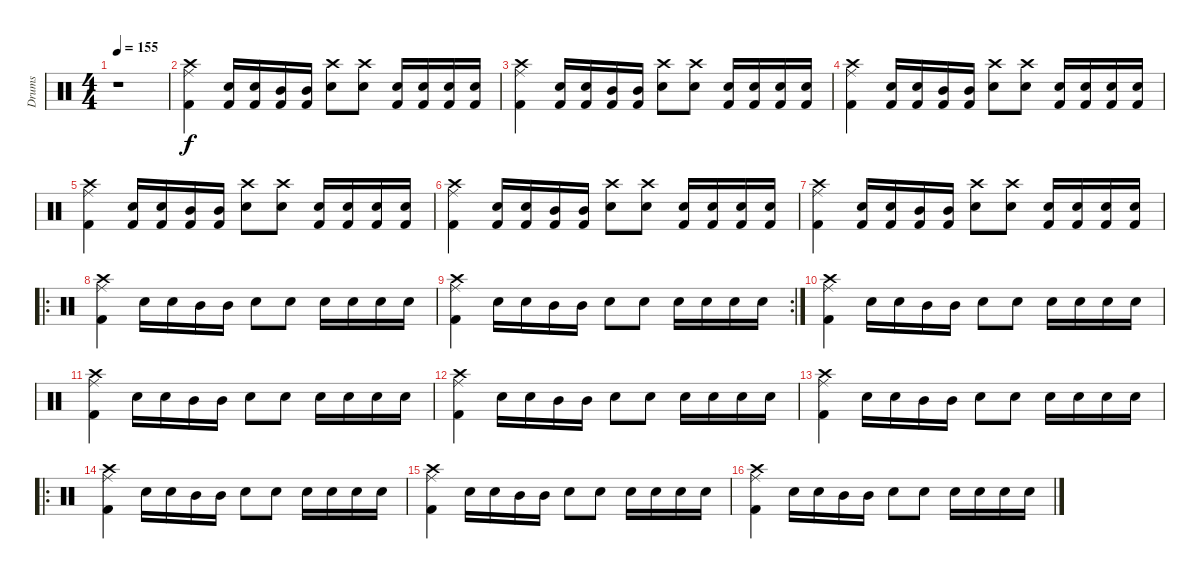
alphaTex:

\track ("Drums" "Drums") {instrument percussion}
\staff {score}
\articulation defaults
\ts (4 4)
\tempo 155
\clef neutral
\ks c
r.1{dy f} |
("Crash high (hit)" "Kick (hit) 2" "Ride (middle)").4 ("Kick (hit) 2" "Snare (hit) 2").16 ("Kick (hit) 2" "Snare (hit) 2").16 ("Kick (hit) 2" "Mid Tom (hit)").16 ("Kick (hit) 2" "Mid Tom (hit)").16 ("Crash high (hit)" "Electric Snare (hit)").8 ("Crash high (hit)" "Electric Snare (hit)").8 ("Kick (hit) 2" "Snare (hit) 2").16 ("Kick (hit) 2" "Snare (hit) 2").16 ("Kick (hit) 2" "Snare (hit) 2").16 ("Kick (hit) 2" "Snare (hit) 2").16 |
("Crash high (hit)" "Kick (hit) 2" "Ride (middle)").4 ("Kick (hit) 2" "Snare (hit) 2").16 ("Kick (hit) 2" "Snare (hit) 2").16 ("Kick (hit) 2" "Mid Tom (hit)").16 ("Kick (hit) 2" "Mid Tom (hit)").16 ("Crash high (hit)" "Electric Snare (hit)").8 ("Crash high (hit)" "Electric Snare (hit)").8 ("Kick (hit) 2" "Snare (hit) 2").16 ("Kick (hit) 2" "Snare (hit) 2").16 ("Kick (hit) 2" "Snare (hit) 2").16 ("Kick (hit) 2" "Snare (hit) 2").16 |
("Crash high (hit)" "Kick (hit) 2" "Ride (middle)").4 ("Kick (hit) 2" "Snare (hit) 2").16 ("Kick (hit) 2" "Snare (hit) 2").16 ("Kick (hit) 2" "Mid Tom (hit)").16 ("Kick (hit) 2" "Mid Tom (hit)").16 ("Crash high (hit)" "Electric Snare (hit)").8 ("Crash high (hit)" "Electric Snare (hit)").8 ("Kick (hit) 2" "Snare (hit) 2").16 ("Kick (hit) 2" "Snare (hit) 2").16 ("Kick (hit) 2" "Snare (hit) 2").16 ("Kick (hit) 2" "Snare (hit) 2").16 |
("Crash high (hit)" "Kick (hit) 2" "Ride (middle)").4 ("Kick (hit) 2" "Snare (hit) 2").16 ("Kick (hit) 2" "Snare (hit) 2").16 ("Kick (hit) 2" "Mid Tom (hit)").16 ("Kick (hit) 2" "Mid Tom (hit)").16 ("Crash high (hit)" "Electric Snare (hit)").8 ("Crash high (hit)" "Electric Snare (hit)").8 ("Kick (hit) 2" "Snare (hit) 2").16 ("Kick (hit) 2" "Snare (hit) 2").16 ("Kick (hit) 2" "Snare (hit) 2").16 ("Kick (hit) 2" "Snare (hit) 2").16 |
("Crash high (hit)" "Kick (hit) 2" "Ride (middle)").4 ("Kick (hit) 2" "Snare (hit) 2").16 ("Kick (hit) 2" "Snare (hit) 2").16 ("Kick (hit) 2" "Mid Tom (hit)").16 ("Kick (hit) 2" "Mid Tom (hit)").16 ("Crash high (hit)" "Electric Snare (hit)").8 ("Crash high (hit)" "Electric Snare (hit)").8 ("Kick (hit) 2" "Snare (hit) 2").16 ("Kick (hit) 2" "Snare (hit) 2").16 ("Kick (hit) 2" "Snare (hit) 2").16 ("Kick (hit) 2" "Snare (hit) 2").16 |
("Crash high (hit)" "Kick (hit) 2" "Ride (middle)").4 ("Kick (hit) 2" "Snare (hit) 2").16 ("Kick (hit) 2" "Snare (hit) 2").16 ("Kick (hit) 2" "Mid Tom (hit)").16 ("Kick (hit) 2" "Mid Tom (hit)").16 ("Crash high (hit)" "Electric Snare (hit)").8 ("Crash high (hit)" "Electric Snare (hit)").8 ("Kick (hit) 2" "Snare (hit) 2").16 ("Kick (hit) 2" "Snare (hit) 2").16 ("Kick (hit) 2" "Snare (hit) 2").16 ("Kick (hit) 2" "Snare (hit) 2").16 |
\ro
("Crash high (hit)" "Kick (hit) 2" "Ride (middle)").4 "Snare (hit) 2".16 "Snare (hit) 2".16 "Mid Tom (hit)".16 "Mid Tom (hit)".16 "Electric Snare (hit)".8 "Electric Snare (hit)".8 "Snare (hit) 2".16 "Snare (hit) 2".16 "Snare (hit) 2".16 "Snare (hit) 2".16 |
\rc 2
("Crash high (hit)" "Kick (hit) 2" "Ride (middle)").4 "Snare (hit) 2".16 "Snare (hit) 2".16 "Mid Tom (hit)".16 "Mid Tom (hit)".16 "Electric Snare (hit)".8 "Electric Snare (hit)".8 "Snare (hit) 2".16 "Snare (hit) 2".16 "Snare (hit) 2".16 "Snare (hit) 2".16 |
("Crash high (hit)" "Kick (hit) 2" "Ride (middle)").4 "Snare (hit) 2".16 "Snare (hit) 2".16 "Mid Tom (hit)".16 "Mid Tom (hit)".16 "Electric Snare (hit)".8 "Electric Snare (hit)".8 "Snare (hit) 2".16 "Snare (hit) 2".16 "Snare (hit) 2".16 "Snare (hit) 2".16 |
("Crash high (hit)" "Kick (hit) 2" "Ride (middle)").4 "Snare (hit) 2".16 "Snare (hit) 2".16 "Mid Tom (hit)".16 "Mid Tom (hit)".16 "Electric Snare (hit)".8 "Electric Snare (hit)".8 "Snare (hit) 2".16 "Snare (hit) 2".16 "Snare (hit) 2".16 "Snare (hit) 2".16 |
("Crash high (hit)" "Kick (hit) 2" "Ride (middle)").4 "Snare (hit) 2".16 "Snare (hit) 2".16 "Mid Tom (hit)".16 "Mid Tom (hit)".16 "Electric Snare (hit)".8 "Electric Snare (hit)".8 "Snare (hit) 2".16 "Snare (hit) 2".16 "Snare (hit) 2".16 "Snare (hit) 2".16 |
("Crash high (hit)" "Kick (hit) 2" "Ride (middle)").4 "Snare (hit) 2".16 "Snare (hit) 2".16 "Mid Tom (hit)".16 "Mid Tom (hit)".16 "Electric Snare (hit)".8 "Electric Snare (hit)".8 "Snare (hit) 2".16 "Snare (hit) 2".16 "Snare (hit) 2".16 "Snare (hit) 2".16 |
\ro
("Crash high (hit)" "Kick (hit) 2" "Ride (middle)").4 "Snare (hit) 2".16 "Snare (hit) 2".16 "Mid Tom (hit)".16 "Mid Tom (hit)".16 "Electric Snare (hit)".8 "Electric Snare (hit)".8 "Snare (hit) 2".16 "Snare (hit) 2".16 "Snare (hit) 2".16 "Snare (hit) 2".16 |
("Crash high (hit)" "Kick (hit) 2" "Ride (middle)").4 "Snare (hit) 2".16 "Snare (hit) 2".16 "Mid Tom (hit)".16 "Mid Tom (hit)".16 "Electric Snare (hit)".8 "Electric Snare (hit)".8 "Snare (hit) 2".16 "Snare (hit) 2".16 "Snare (hit) 2".16 "Snare (hit) 2".16 |
("Crash high (hit)" "Kick (hit) 2" "Ride (middle)").4 "Snare (hit) 2".16 "Snare (hit) 2".16 "Mid Tom (hit)".16 "Mid Tom (hit)".16 "Electric Snare (hit)".8 "Electric Snare (hit)".8 "Snare (hit) 2".16 "Snare (hit) 2".16 "Snare (hit) 2".16 "Snare (hit) 2".16
